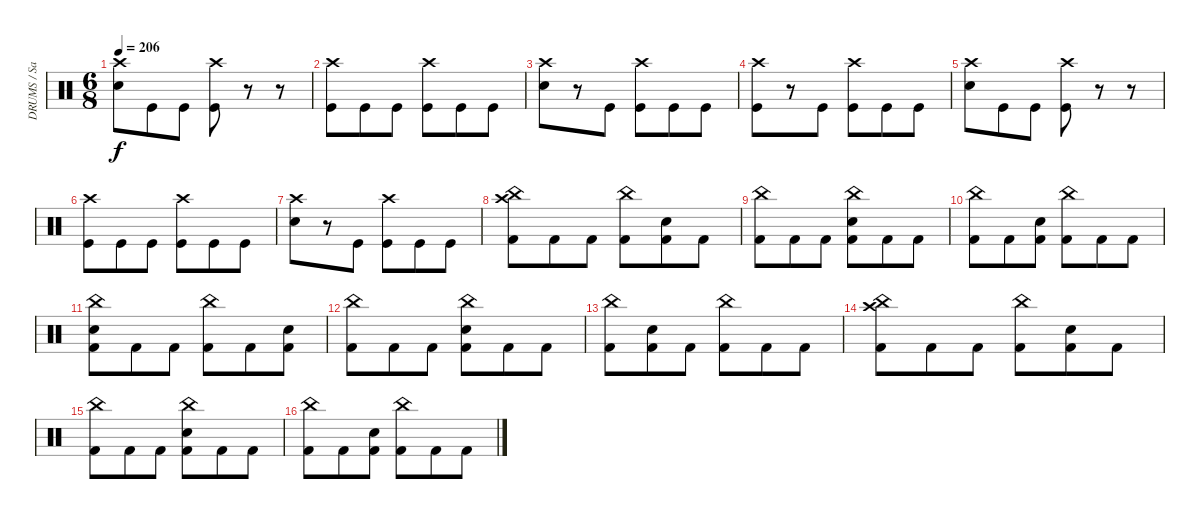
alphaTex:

\track ("DRUMS / Sasha" "DRUMS / Sa") {instrument percussion}
\staff {score}
\articulation defaults
\ts (6 8)
\tempo 206
\clef neutral
\ks c
("Crash high (hit)" "Snare (hit) 2").8{dy f} "Kick (hit)".8 "Kick (hit)".8 ("Kick (hit)" "Crash high (hit)").8 r.8 r.8 |
("Kick (hit)" "Crash high (hit)").8 "Kick (hit)".8 "Kick (hit)".8 ("Kick (hit)" "Crash high (hit)").8 "Kick (hit)".8 "Kick (hit)".8 |
("Crash high (hit)" "Snare (hit) 2").8 r.8 "Kick (hit)".8 ("Crash high (hit)" "Kick (hit)").8 "Kick (hit)".8 "Kick (hit)".8 |
("Kick (hit)" "Crash high (hit)").8 r.8 "Kick (hit)".8 ("Kick (hit)" "Crash high (hit)").8 "Kick (hit)".8 "Kick (hit)".8 |
("Crash high (hit)" "Snare (hit) 2").8 "Kick (hit)".8 "Kick (hit)".8 ("Kick (hit)" "Crash high (hit)").8 r.8 r.8 |
("Kick (hit)" "Crash high (hit)").8 "Kick (hit)".8 "Kick (hit)".8 ("Kick (hit)" "Crash high (hit)").8 "Kick (hit)".8 "Kick (hit)".8 |
("Crash high (hit)" "Snare (hit) 2").8 r.8 "Kick (hit)".8 ("Crash high (hit)" "Kick (hit)").8 "Kick (hit)".8 "Kick (hit)".8 |
("China (hit)" "Crash high (hit)" "Kick (hit) 2").8 "Kick (hit) 2".8 "Kick (hit) 2".8 ("China (hit)" "Kick (hit) 2").8 ("Electric Snare (hit)" "Kick (hit) 2").8 "Kick (hit) 2".8 |
("China (hit)" "Kick (hit) 2").8 "Kick (hit) 2".8 "Kick (hit) 2".8 ("China (hit)" "Electric Snare (hit)" "Kick (hit) 2").8 "Kick (hit) 2".8 "Kick (hit) 2".8 |
("China (hit)" "Kick (hit) 2").8 "Kick (hit) 2".8 ("Electric Snare (hit)" "Kick (hit) 2").8 ("China (hit)" "Kick (hit) 2").8 "Kick (hit) 2".8 "Kick (hit) 2".8 |
("China (hit)" "Electric Snare (hit)" "Kick (hit) 2").8 "Kick (hit) 2".8 "Kick (hit) 2".8 ("China (hit)" "Kick (hit) 2").8 "Kick (hit) 2".8 ("Electric Snare (hit)" "Kick (hit) 2").8 |
("China (hit)" "Kick (hit) 2").8 "Kick (hit) 2".8 "Kick (hit) 2".8 ("China (hit)" "Electric Snare (hit)" "Kick (hit) 2").8 "Kick (hit) 2".8 "Kick (hit) 2".8 |
("China (hit)" "Kick (hit) 2").8 ("Electric Snare (hit)" "Kick (hit) 2").8 "Kick (hit) 2".8 ("China (hit)" "Kick (hit) 2").8 "Kick (hit) 2".8 "Kick (hit) 2".8 |
("China (hit)" "Crash high (hit)" "Kick (hit) 2").8 "Kick (hit) 2".8 "Kick (hit) 2".8 ("China (hit)" "Kick (hit) 2").8 ("Electric Snare (hit)" "Kick (hit) 2").8 "Kick (hit) 2".8 |
("China (hit)" "Kick (hit) 2").8 "Kick (hit) 2".8 "Kick (hit) 2".8 ("China (hit)" "Electric Snare (hit)" "Kick (hit) 2").8 "Kick (hit) 2".8 "Kick (hit) 2".8 |
("China (hit)" "Kick (hit) 2").8 "Kick (hit) 2".8 ("Electric Snare (hit)" "Kick (hit) 2").8 ("China (hit)" "Kick (hit) 2").8 "Kick (hit) 2".8 "Kick (hit) 2".8
